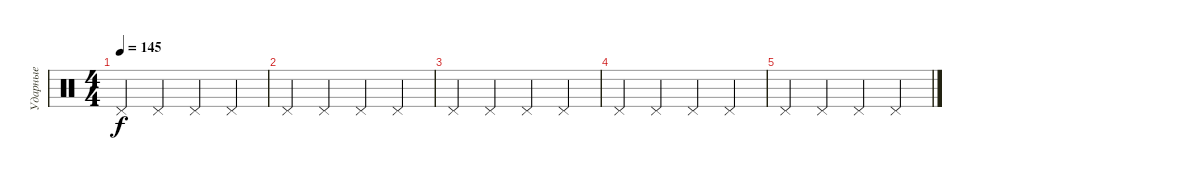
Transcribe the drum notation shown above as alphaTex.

\track ("Ударные" "Ударные") {instrument percussion}
\staff {score}
\articulation defaults
\ts (4 4)
\tempo 145
\clef neutral
\ks c "Pedal Hi-Hat (hit)".4{dy f} "Pedal Hi-Hat (hit)".4 "Pedal Hi-Hat (hit)".4 "Pedal Hi-Hat (hit)".4
|
"Pedal Hi-Hat (hit)".4 "Pedal Hi-Hat (hit)".4 "Pedal Hi-Hat (hit)".4 "Pedal Hi-Hat (hit)".4 |
"Pedal Hi-Hat (hit)".4 "Pedal Hi-Hat (hit)".4 "Pedal Hi-Hat (hit)".4 "Pedal Hi-Hat (hit)".4 |
"Pedal Hi-Hat (hit)".4 "Pedal Hi-Hat (hit)".4 "Pedal Hi-Hat (hit)".4 "Pedal Hi-Hat (hit)".4 |
"Pedal Hi-Hat (hit)".4 "Pedal Hi-Hat (hit)".4 "Pedal Hi-Hat (hit)".4 "Pedal Hi-Hat (hit)".4
